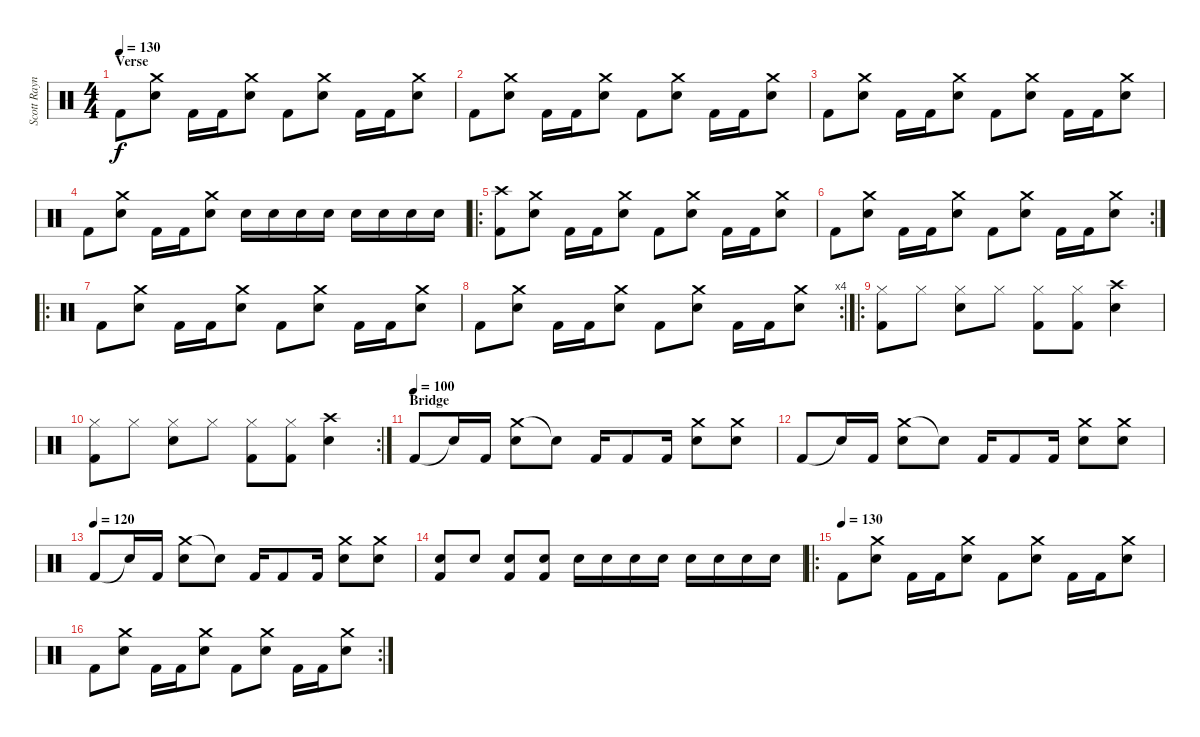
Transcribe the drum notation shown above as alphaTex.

\track ("Scott Raynor Drums" "Scott Rayn") {instrument percussion}
\staff {score}
\articulation defaults
\ts (4 4)
\section ("" "Verse")
\tempo 130
\clef neutral
\ks c "Kick (hit) 2".8{dy f}
("Crash medium (hit)" "Electric Snare (hit)").8 "Kick (hit) 2".16 "Kick (hit) 2".16 ("Crash medium (hit)" "Electric Snare (hit)").8 "Kick (hit) 2".8 ("Crash medium (hit)" "Electric Snare (hit)").8 "Kick (hit) 2".16 "Kick (hit) 2".16 ("Crash medium (hit)" "Electric Snare (hit)").8 |
"Kick (hit) 2".8 ("Crash medium (hit)" "Electric Snare (hit)").8 "Kick (hit) 2".16 "Kick (hit) 2".16 ("Crash medium (hit)" "Electric Snare (hit)").8 "Kick (hit) 2".8 ("Crash medium (hit)" "Electric Snare (hit)").8 "Kick (hit) 2".16 "Kick (hit) 2".16 ("Crash medium (hit)" "Electric Snare (hit)").8 |
"Kick (hit) 2".8 ("Crash medium (hit)" "Electric Snare (hit)").8 "Kick (hit) 2".16 "Kick (hit) 2".16 ("Crash medium (hit)" "Electric Snare (hit)").8 "Kick (hit) 2".8 ("Crash medium (hit)" "Electric Snare (hit)").8 "Kick (hit) 2".16 "Kick (hit) 2".16 ("Crash medium (hit)" "Electric Snare (hit)").8 |
"Kick (hit) 2".8 ("Crash medium (hit)" "Electric Snare (hit)").8 "Kick (hit) 2".16 "Kick (hit) 2".16 ("Crash medium (hit)" "Electric Snare (hit)").8 "Electric Snare (hit)".16 "Electric Snare (hit)".16 "Electric Snare (hit)".16 "Electric Snare (hit)".16 "Electric Snare (hit)".16 "Electric Snare (hit)".16 "Electric Snare (hit)".16 "Electric Snare (hit)".16 |
\ro
("Crash high (hit)" "Kick (hit) 2").8 ("Crash medium (hit)" "Electric Snare (hit)").8 "Kick (hit) 2".16 "Kick (hit) 2".16 ("Crash medium (hit)" "Electric Snare (hit)").8 "Kick (hit) 2".8 ("Crash medium (hit)" "Electric Snare (hit)").8 "Kick (hit) 2".16 "Kick (hit) 2".16 ("Crash medium (hit)" "Electric Snare (hit)").8 |
\rc 2 "Kick (hit) 2".8
("Crash medium (hit)" "Electric Snare (hit)").8 "Kick (hit) 2".16 "Kick (hit) 2".16 ("Crash medium (hit)" "Electric Snare (hit)").8 "Kick (hit) 2".8 ("Crash medium (hit)" "Electric Snare (hit)").8 "Kick (hit) 2".16 "Kick (hit) 2".16 ("Crash medium (hit)" "Electric Snare (hit)").8 |
\ro "Kick (hit) 2".8
("Crash medium (hit)" "Electric Snare (hit)").8 "Kick (hit) 2".16 "Kick (hit) 2".16 ("Crash medium (hit)" "Electric Snare (hit)").8 "Kick (hit) 2".8 ("Crash medium (hit)" "Electric Snare (hit)").8 "Kick (hit) 2".16 "Kick (hit) 2".16 ("Crash medium (hit)" "Electric Snare (hit)").8 |
\rc 4 "Kick (hit) 2".8
("Crash medium (hit)" "Electric Snare (hit)").8 "Kick (hit) 2".16 "Kick (hit) 2".16 ("Crash medium (hit)" "Electric Snare (hit)").8 "Kick (hit) 2".8 ("Crash medium (hit)" "Electric Snare (hit)").8 "Kick (hit) 2".16 "Kick (hit) 2".16 ("Crash medium (hit)" "Electric Snare (hit)").8 |
\ro
("Hi-Hat (closed)" "Kick (hit) 2").8 "Hi-Hat (closed)".8 ("Hi-Hat (closed)" "Electric Snare (hit)").8 "Hi-Hat (closed)".8 ("Hi-Hat (closed)" "Kick (hit) 2").8 ("Hi-Hat (closed)" "Kick (hit) 2").8 ("Crash high (hit)" "Electric Snare (hit)").4 |
\rc 2
("Hi-Hat (closed)" "Kick (hit) 2").8 "Hi-Hat (closed)".8 ("Hi-Hat (closed)" "Electric Snare (hit)").8 "Hi-Hat (closed)".8 ("Hi-Hat (closed)" "Kick (hit) 2").8 ("Hi-Hat (closed)" "Kick (hit) 2").8 ("Crash high (hit)" "Electric Snare (hit)").4 |
\section ("" "Bridge")
\tempo (100)
"Kick (hit) 2".8 "Snare (hit)"{t}.16 "Kick (hit) 2".16 ("Crash medium (hit)" "Electric Snare (hit)").8 "Snare (hit)"{t}.8 "Kick (hit) 2".16 "Kick (hit) 2".8 "Kick (hit) 2".16 ("Crash medium (hit)" "Electric Snare (hit)").8 ("Crash medium (hit)" "Electric Snare (hit)").8 |
"Kick (hit) 2".8 "Snare (hit)"{t}.16 "Kick (hit) 2".16 ("Crash medium (hit)" "Electric Snare (hit)").8 "Snare (hit)"{t}.8 "Kick (hit) 2".16 "Kick (hit) 2".8 "Kick (hit) 2".16 ("Crash medium (hit)" "Electric Snare (hit)").8 ("Crash medium (hit)" "Electric Snare (hit)").8 |
\tempo (120)
"Kick (hit) 2".8 "Snare (hit)"{t}.16 "Kick (hit) 2".16 ("Crash medium (hit)" "Electric Snare (hit)").8 "Snare (hit)"{t}.8 "Kick (hit) 2".16 "Kick (hit) 2".8 "Kick (hit) 2".16 ("Crash medium (hit)" "Electric Snare (hit)").8 ("Crash medium (hit)" "Electric Snare (hit)").8 |
("Electric Snare (hit)" "Kick (hit) 2").8 "Electric Snare (hit)".8 ("Electric Snare (hit)" "Kick (hit) 2").8 ("Electric Snare (hit)" "Kick (hit) 2").8 "Electric Snare (hit)".16 "Electric Snare (hit)".16 "Electric Snare (hit)".16 "Electric Snare (hit)".16 "Electric Snare (hit)".16 "Electric Snare (hit)".16 "Electric Snare (hit)".16 "Electric Snare (hit)".16 |
\ro
\tempo (130)
"Kick (hit) 2".8 ("Crash medium (hit)" "Electric Snare (hit)").8 "Kick (hit) 2".16 "Kick (hit) 2".16 ("Crash medium (hit)" "Electric Snare (hit)").8 "Kick (hit) 2".8 ("Crash medium (hit)" "Electric Snare (hit)").8 "Kick (hit) 2".16 "Kick (hit) 2".16 ("Crash medium (hit)" "Electric Snare (hit)").8 |
\rc 2 "Kick (hit) 2".8
("Crash medium (hit)" "Electric Snare (hit)").8 "Kick (hit) 2".16 "Kick (hit) 2".16 ("Crash medium (hit)" "Electric Snare (hit)").8 "Kick (hit) 2".8 ("Crash medium (hit)" "Electric Snare (hit)").8 "Kick (hit) 2".16 "Kick (hit) 2".16 ("Crash medium (hit)" "Electric Snare (hit)").8
